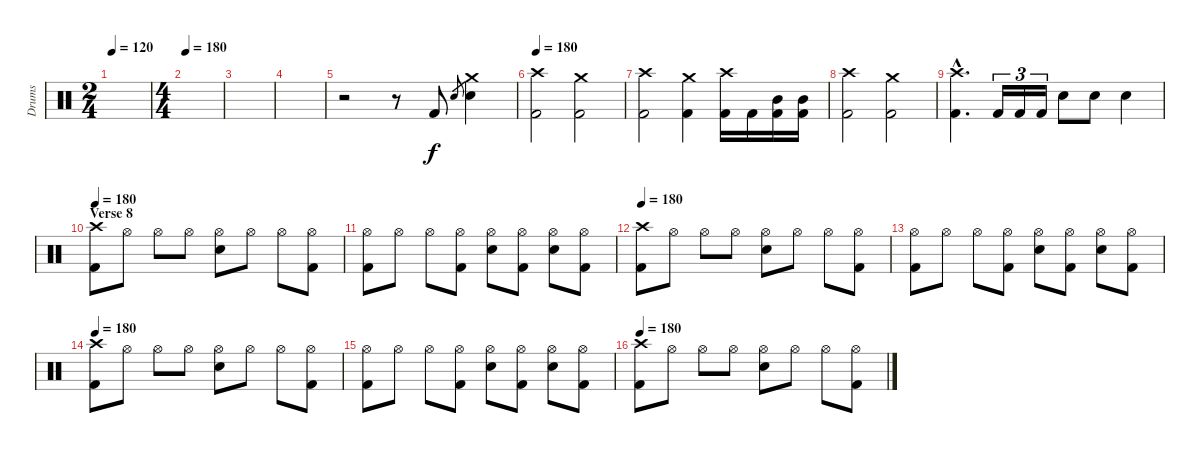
\track ("Drums" "Drums") {instrument percussion}
\staff {score}
\articulation defaults
\ts (2 4)
\tempo 120
\clef neutral
\ks c
|
\ts (4 4)
\tempo 180
|
|
|
r.2 r.8 "Kick (hit) 2".8 "Electric Snare (hit)".8{gr} ("Crash medium (hit)" "Electric Snare (hit)").4 |
\tempo 180
("Crash high (hit)" "Kick (hit) 2").2 ("Crash medium (hit)" "Kick (hit) 2").2 |
("Crash high (hit)" "Kick (hit) 2").2 ("Crash medium (hit)" "Kick (hit) 2").4 ("Crash high (hit)" "Kick (hit) 2").16 "Kick (hit) 2".16 ("Mid Tom (hit)" "Kick (hit) 2").16 ("Mid Tom (hit)" "Kick (hit) 2").16 |
("Crash high (hit)" "Kick (hit) 2").2 ("Crash medium (hit)" "Kick (hit) 2").2 |
("Crash high (hit)"{hac} "Kick (hit) 2"{hac}).4{d} "Kick (hit) 2".16{tu (3 2)} "Kick (hit) 2".16{tu (3 2)} "Kick (hit) 2".16{tu (3 2)} "Electric Snare (hit)".8 "Electric Snare (hit)".8 "Electric Snare (hit)".4 |
\section ("" "Verse 8")
\tempo 180
("Crash high (hit)" "Kick (hit) 2").8 "Hi-Hat (open)".8 "Hi-Hat (open)".8 "Hi-Hat (open)".8 ("Hi-Hat (open)" "Electric Snare (hit)").8 "Hi-Hat (open)".8 "Hi-Hat (open)".8 ("Hi-Hat (open)" "Kick (hit) 2").8 |
("Hi-Hat (open)" "Kick (hit) 2").8 "Hi-Hat (open)".8 "Hi-Hat (open)".8 ("Hi-Hat (open)" "Kick (hit) 2").8 ("Hi-Hat (open)" "Electric Snare (hit)").8 ("Hi-Hat (open)" "Kick (hit) 2").8 ("Hi-Hat (open)" "Electric Snare (hit)").8 ("Hi-Hat (open)" "Kick (hit) 2").8 |
\tempo 180
("Crash high (hit)" "Kick (hit) 2").8 "Hi-Hat (open)".8 "Hi-Hat (open)".8 "Hi-Hat (open)".8 ("Hi-Hat (open)" "Electric Snare (hit)").8 "Hi-Hat (open)".8 "Hi-Hat (open)".8 ("Hi-Hat (open)" "Kick (hit) 2").8 |
("Hi-Hat (open)" "Kick (hit) 2").8 "Hi-Hat (open)".8 "Hi-Hat (open)".8 ("Hi-Hat (open)" "Kick (hit) 2").8 ("Hi-Hat (open)" "Electric Snare (hit)").8 ("Hi-Hat (open)" "Kick (hit) 2").8 ("Hi-Hat (open)" "Electric Snare (hit)").8 ("Hi-Hat (open)" "Kick (hit) 2").8 |
\tempo 180
("Crash high (hit)" "Kick (hit) 2").8 "Hi-Hat (open)".8 "Hi-Hat (open)".8 "Hi-Hat (open)".8 ("Hi-Hat (open)" "Electric Snare (hit)").8 "Hi-Hat (open)".8 "Hi-Hat (open)".8 ("Hi-Hat (open)" "Kick (hit) 2").8 |
("Hi-Hat (open)" "Kick (hit) 2").8 "Hi-Hat (open)".8 "Hi-Hat (open)".8 ("Hi-Hat (open)" "Kick (hit) 2").8 ("Hi-Hat (open)" "Electric Snare (hit)").8 ("Hi-Hat (open)" "Kick (hit) 2").8 ("Hi-Hat (open)" "Electric Snare (hit)").8 ("Hi-Hat (open)" "Kick (hit) 2").8 |
\tempo 180
("Crash high (hit)" "Kick (hit) 2").8 "Hi-Hat (open)".8 "Hi-Hat (open)".8 "Hi-Hat (open)".8 ("Hi-Hat (open)" "Electric Snare (hit)").8 "Hi-Hat (open)".8 "Hi-Hat (open)".8 ("Hi-Hat (open)" "Kick (hit) 2").8
